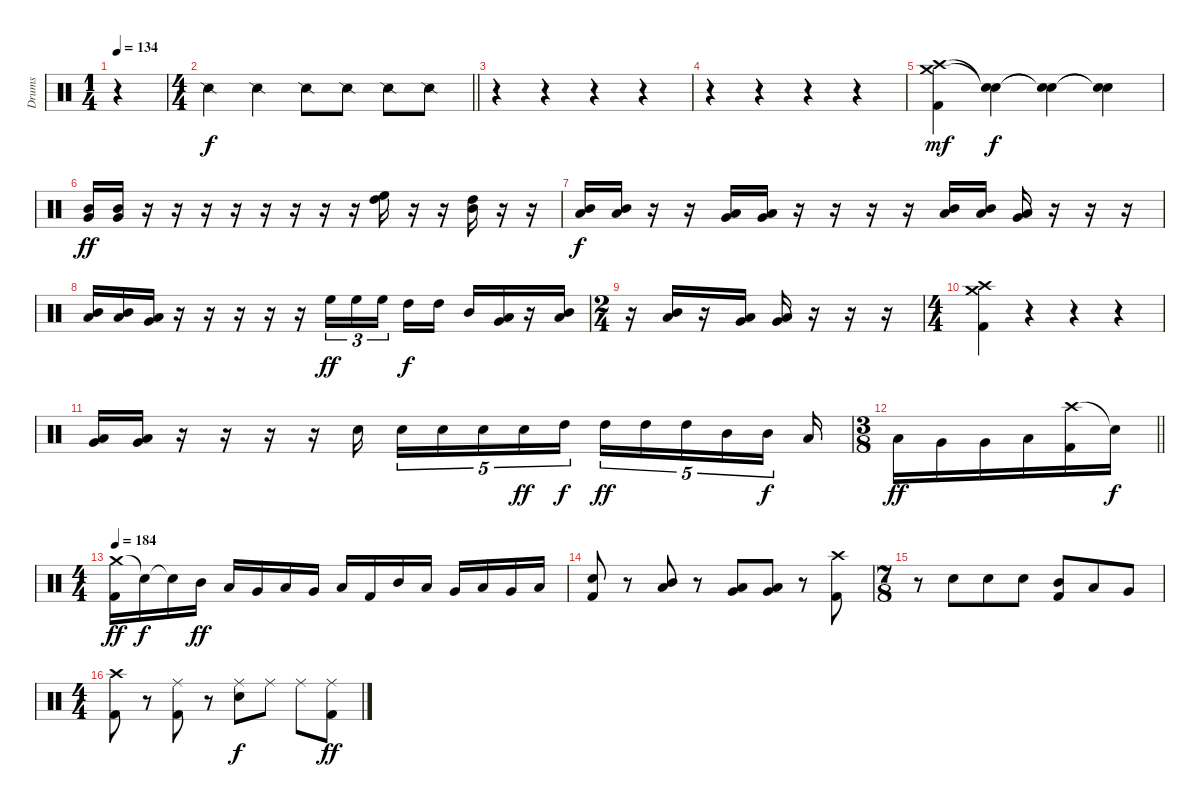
\track ("Drums" "Drums") {instrument percussion}
\staff {score}
\articulation defaults
\ts (1 4)
\tempo 134
\clef neutral
\ks c
r.4{dy f} |
\ts (4 4)
\barLineRight lightlight "Snare (side stick) 2".4 "Snare (side stick) 2".4 "Snare (side stick) 2".8 "Snare (side stick) 2".8 "Snare (side stick) 2".8 "Snare (side stick) 2".8
|
r.4 r.4 r.4 r.4 |
r.4 r.4 r.4 r.4 |
("Crash high (hit)" "Crash medium (hit)" "Kick (hit) 2").4{dy mf} ("Snare (hit)"{t} "Snare (hit)"{t}).4{dy f} ("Snare (hit)"{t} "Snare (hit)"{t}).4 ("Snare (hit)"{t} "Snare (hit)"{t}).4 |
("Mid Tom (hit)" "Very Low Tom (hit)").16{dy ff} ("Mid Tom (hit)" "Very Low Tom (hit)").16 r.16 r.16 r.16 r.16 r.16 r.16 r.16 r.16 ("High Floor Tom (hit)" "High Tom (hit)").16 r.16 r.16 ("High Tom (hit)" "Mid Tom (hit)").16 r.16 r.16 |
("Mid Tom (hit)" "Low Tom (hit)").16{dy f} ("Mid Tom (hit)" "Low Tom (hit)").16 r.16 r.16 ("Very Low Tom (hit)" "Low Floor Tom (hit)").16 ("Very Low Tom (hit)" "Low Floor Tom (hit)").16 r.16 r.16 r.16 r.16 ("Mid Tom (hit)" "Low Tom (hit)").16 ("Mid Tom (hit)" "Low Tom (hit)").16 ("Very Low Tom (hit)" "Low Floor Tom (hit)").16 r.16 r.16 r.16 |
("Mid Tom (hit)" "Low Tom (hit)").16 ("Mid Tom (hit)" "Low Tom (hit)").16 ("Very Low Tom (hit)" "Low Floor Tom (hit)").16 r.16 r.16 r.16 r.16 r.16 "High Floor Tom (hit)".16{tu (3 2) dy ff} "High Floor Tom (hit)".16{tu (3 2)} "High Floor Tom (hit)".16{tu (3 2) beam splitsecondary} "High Tom (hit)".16{dy f} "High Tom (hit)".16 "Mid Tom (hit)".16 ("Low Tom (hit)" "Very Low Tom (hit)").16 r.16 ("Mid Tom (hit)" "Low Tom (hit)").16 |
\ts (2 4)
r.16 ("Mid Tom (hit)" "Low Tom (hit)").16 r.16 ("Very Low Tom (hit)" "Low Floor Tom (hit)").16 ("Very Low Tom (hit)" "Low Floor Tom (hit)").16 r.16 r.16 r.16 |
\ts (4 4)
("Crash medium (hit)" "Crash high (hit)" "Kick (hit) 2").4 r.4 r.4 r.4 |
("Low Floor Tom (hit)" "Very Low Tom (hit)").16 ("Low Floor Tom (hit)" "Very Low Tom (hit)").16 r.16 r.16 r.16 r.16 "Snare (hit) 2".16{beam splitsecondary} "Snare (hit) 2".16{tu (5 4)} "Snare (hit) 2".16{tu (5 4)} "Snare (hit) 2".16{tu (5 4)} "Snare (hit) 2".16{tu (5 4) dy ff} "High Tom (hit)".16{tu (5 4) dy f beam splitsecondary} "High Tom (hit)".16{tu (5 4) dy ff} "High Tom (hit)".16{tu (5 4)} "High Tom (hit)".16{tu (5 4)} "Mid Tom (hit)".16{tu (5 4)} "Mid Tom (hit)".16{tu (5 4) dy f beam splitsecondary} "Low Tom (hit)".16 |
\ts (3 8)
\barLineRight lightlight "Low Tom (hit)".16{dy ff} "Very Low Tom (hit)".16 "Very Low Tom (hit)".16 "Low Floor Tom (hit)".16
("Crash high (hit)" "Kick (hit) 2").16 "Snare (hit)"{t}.16{dy f} |
\ts (4 4)
\tempo 184
("Crash medium (hit)" "Kick (hit) 2").16{dy ff} "Snare (hit)"{t}.16{dy f} "Snare (hit)"{t}.16 "Mid Tom (hit)".16{dy ff} "Low Tom (hit)".16 "Very Low Tom (hit)".16 "Low Tom (hit)".16 "Very Low Tom (hit)".16 "Low Floor Tom (hit)".16 "Kick (hit) 2".16 "Mid Tom (hit)".16 "Low Tom (hit)".16 "Very Low Tom (hit)".16 "Low Tom (hit)".16 "Very Low Tom (hit)".16 "Low Floor Tom (hit)".16 |
("Snare (hit) 2" "Kick (hit) 2").8 r.8 ("Mid Tom (hit)" "Low Tom (hit)").8 r.8 ("Low Tom (hit)" "Very Low Tom (hit)").8 ("Low Tom (hit)" "Very Low Tom (hit)").8 r.8 ("Crash high (hit)" "Kick (hit) 2").8 |
\ts (7 8)
r.8 "Snare (hit) 2".8 "Snare (hit) 2".8 "Snare (hit) 2".8 ("Mid Tom (hit)" "Kick (hit) 2").8 "Low Tom (hit)".8 "Very Low Tom (hit)".8 |
\ts (4 4)
("Crash high (hit)" "Kick (hit) 2").8 r.8 ("Ride (middle)" "Kick (hit) 2").8 r.8 ("Ride (middle)" "Snare (hit) 2").8{dy f} "Ride (middle)".8 "Ride (middle)".8 ("Ride (middle)" "Kick (hit) 2").8{dy ff}
